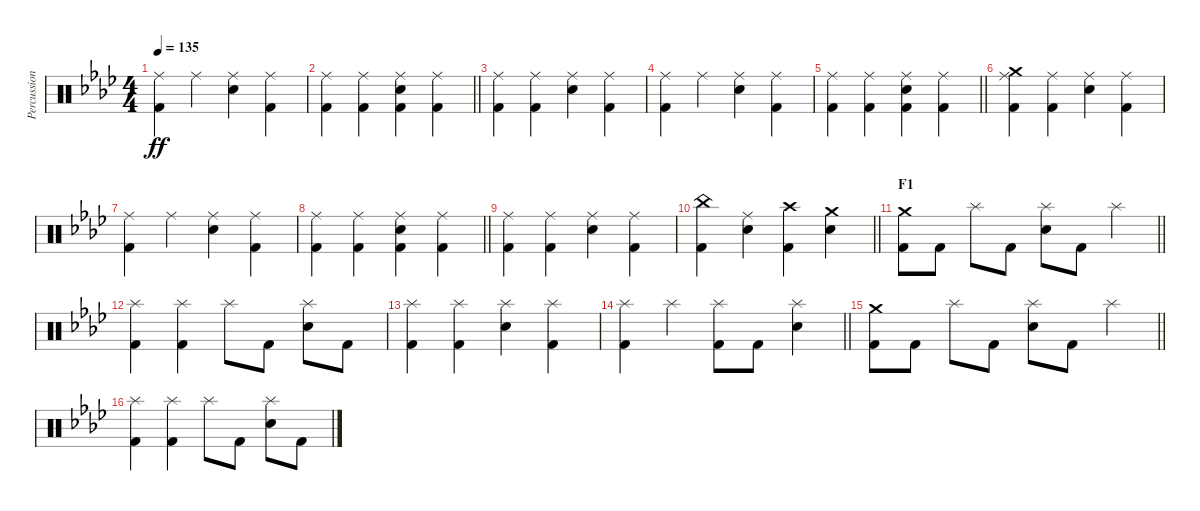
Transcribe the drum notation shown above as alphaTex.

\track ("Percussion" "Percussion") {instrument percussion}
\staff {score}
\articulation defaults
\ts (4 4)
\tempo 135
\clef neutral
\ks fminor
("Ride (middle)" "Kick (hit) 2").4{dy ff} "Ride (middle)".4 ("Ride (middle)" "Snare (hit) 2").4 ("Ride (middle)" "Kick (hit) 2").4 |
\barLineRight lightlight
("Ride (middle)" "Kick (hit) 2").4 ("Ride (middle)" "Kick (hit) 2").4 ("Ride (middle)" "Snare (hit) 2" "Kick (hit) 2").4 ("Ride (middle)" "Kick (hit) 2").4 |
\section ("" "")
("Ride (middle)" "Kick (hit) 2").4 ("Ride (middle)" "Kick (hit) 2").4 ("Ride (middle)" "Snare (hit) 2").4 ("Ride (middle)" "Kick (hit) 2").4 |
("Ride (middle)" "Kick (hit) 2").4 "Ride (middle)".4 ("Ride (middle)" "Snare (hit) 2").4 ("Ride (middle)" "Kick (hit) 2").4 |
\barLineRight lightlight
("Ride (middle)" "Kick (hit) 2").4 ("Ride (middle)" "Kick (hit) 2").4 ("Ride (middle)" "Snare (hit) 2" "Kick (hit) 2").4 ("Ride (middle)" "Kick (hit) 2").4 |
\section ("" "")
("Crash medium (hit)" "Ride (middle)" "Kick (hit) 2").4 ("Ride (middle)" "Kick (hit) 2").4 ("Ride (middle)" "Snare (hit) 2").4 ("Ride (middle)" "Kick (hit) 2").4 |
("Ride (middle)" "Kick (hit) 2").4 "Ride (middle)".4 ("Ride (middle)" "Snare (hit) 2").4 ("Ride (middle)" "Kick (hit) 2").4 |
\barLineRight lightlight
("Ride (middle)" "Kick (hit) 2").4 ("Ride (middle)" "Kick (hit) 2").4 ("Ride (middle)" "Snare (hit) 2" "Kick (hit) 2").4 ("Ride (middle)" "Kick (hit) 2").4 |
\section ("" "")
("Ride (middle)" "Kick (hit) 2").4 ("Ride (middle)" "Kick (hit) 2").4 ("Ride (middle)" "Snare (hit) 2").4 ("Ride (middle)" "Kick (hit) 2").4 |
\barLineRight lightlight
("China (hit)" "Kick (hit) 2").4 ("Ride (middle)" "Snare (hit) 2").4 ("Crash high (hit)" "Kick (hit) 2").4 ("Crash medium (hit)" "Snare (hit) 2").4 |
\section ("" "F1")
\barLineRight lightlight
("Crash medium (hit)" "Kick (hit) 2").8 "Kick (hit) 2".8 "Splash (hit)".8 "Kick (hit) 2".8 ("Splash (hit)" "Electric Snare (hit)").8 "Kick (hit) 2".8 "Splash (hit)".4 |
("Splash (hit)" "Kick (hit) 2").4 ("Splash (hit)" "Kick (hit) 2").4 "Splash (hit)".8 "Kick (hit) 2".8 ("Splash (hit)" "Electric Snare (hit)").8 "Kick (hit) 2".8 |
("Splash (hit)" "Kick (hit) 2").4 ("Splash (hit)" "Kick (hit) 2").4 ("Splash (hit)" "Electric Snare (hit)").4 ("Splash (hit)" "Kick (hit) 2").4 |
\barLineRight lightlight
("Splash (hit)" "Kick (hit) 2").4 "Splash (hit)".4 ("Splash (hit)" "Kick (hit) 2").8 "Kick (hit) 2".8 ("Splash (hit)" "Electric Snare (hit)").4 |
\barLineRight lightlight
("Crash medium (hit)" "Kick (hit) 2").8 "Kick (hit) 2".8 "Splash (hit)".8 "Kick (hit) 2".8 ("Splash (hit)" "Electric Snare (hit)").8 "Kick (hit) 2".8 "Splash (hit)".4 |
("Splash (hit)" "Kick (hit) 2").4 ("Splash (hit)" "Kick (hit) 2").4 "Splash (hit)".8 "Kick (hit) 2".8 ("Splash (hit)" "Electric Snare (hit)").8 "Kick (hit) 2".8
